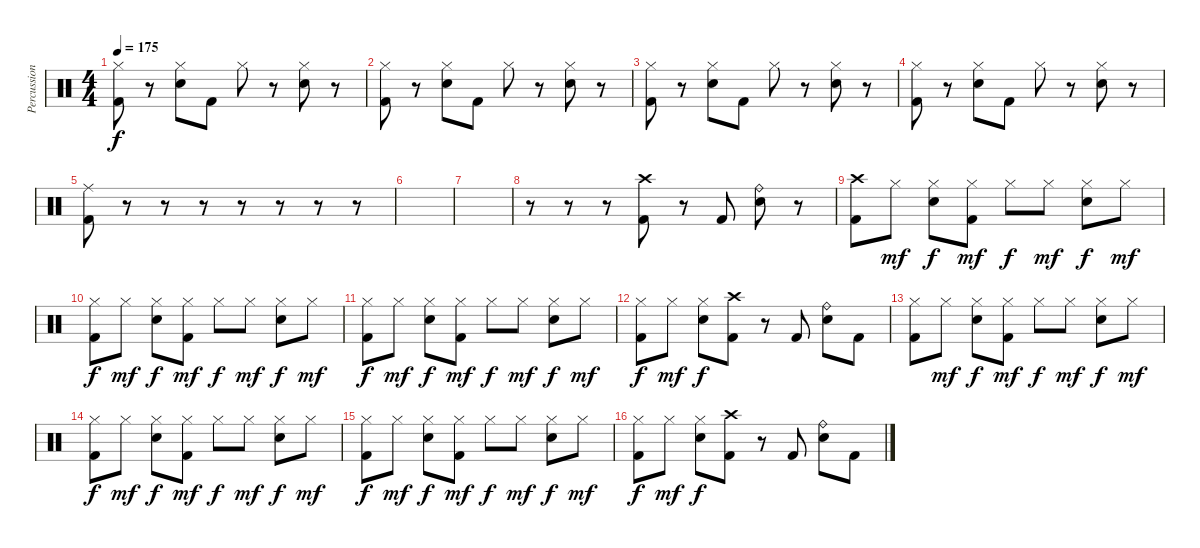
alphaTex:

\track ("Percussion" "Percussion") {instrument percussion}
\staff {score}
\articulation defaults
\ts (4 4)
\tempo 175
\clef neutral
\ks c
("Hi-Hat (closed)" "Kick (hit) 2").8{dy f} r.8 ("Hi-Hat (closed)" "Electric Snare (hit)").8 "Kick (hit) 2".8 "Hi-Hat (closed)".8 r.8 ("Hi-Hat (closed)" "Electric Snare (hit)").8 r.8 |
("Hi-Hat (closed)" "Kick (hit) 2").8 r.8 ("Hi-Hat (closed)" "Electric Snare (hit)").8 "Kick (hit) 2".8 "Hi-Hat (closed)".8 r.8 ("Hi-Hat (closed)" "Electric Snare (hit)").8 r.8 |
("Hi-Hat (closed)" "Kick (hit) 2").8 r.8 ("Hi-Hat (closed)" "Electric Snare (hit)").8 "Kick (hit) 2".8 "Hi-Hat (closed)".8 r.8 ("Hi-Hat (closed)" "Electric Snare (hit)").8 r.8 |
("Hi-Hat (closed)" "Kick (hit) 2").8 r.8 ("Hi-Hat (closed)" "Electric Snare (hit)").8 "Kick (hit) 2".8 "Hi-Hat (closed)".8 r.8 ("Hi-Hat (closed)" "Electric Snare (hit)").8 r.8 |
("Ride (middle)" "Kick (hit) 2").8 r.8 r.8 r.8 r.8 r.8 r.8 r.8 |
|
|
r.8 r.8 r.8 ("Crash high (hit)" "Kick (hit) 2").8 r.8 "Kick (hit) 2".8 ("Ride (bell)" "Electric Snare (hit)").8 r.8 |
("Crash high (hit)" "Kick (hit) 2").8 "Hi-Hat (closed)".8{dy mf} ("Hi-Hat (closed)" "Electric Snare (hit)").8{dy f} ("Hi-Hat (closed)" "Kick (hit) 2").8{dy mf} "Hi-Hat (closed)".8{dy f} "Hi-Hat (closed)".8{dy mf} ("Hi-Hat (closed)" "Electric Snare (hit)").8{dy f} "Hi-Hat (closed)".8{dy mf} |
("Hi-Hat (closed)" "Kick (hit) 2").8{dy f} "Hi-Hat (closed)".8{dy mf} ("Hi-Hat (closed)" "Electric Snare (hit)").8{dy f} ("Hi-Hat (closed)" "Kick (hit) 2").8{dy mf} "Hi-Hat (closed)".8{dy f} "Hi-Hat (closed)".8{dy mf} ("Hi-Hat (closed)" "Electric Snare (hit)").8{dy f} "Hi-Hat (closed)".8{dy mf} |
("Hi-Hat (closed)" "Kick (hit) 2").8{dy f} "Hi-Hat (closed)".8{dy mf} ("Hi-Hat (closed)" "Electric Snare (hit)").8{dy f} ("Hi-Hat (closed)" "Kick (hit) 2").8{dy mf} "Hi-Hat (closed)".8{dy f} "Hi-Hat (closed)".8{dy mf} ("Hi-Hat (closed)" "Electric Snare (hit)").8{dy f} "Hi-Hat (closed)".8{dy mf} |
("Hi-Hat (closed)" "Kick (hit) 2").8{dy f} "Hi-Hat (closed)".8{dy mf} ("Hi-Hat (closed)" "Electric Snare (hit)").8{dy f} ("Crash high (hit)" "Kick (hit) 2").8 r.8 "Kick (hit) 2".8 ("Ride (bell)" "Electric Snare (hit)").8 "Kick (hit) 2".8 |
("Hi-Hat (closed)" "Kick (hit) 2").8 "Hi-Hat (closed)".8{dy mf} ("Hi-Hat (closed)" "Electric Snare (hit)").8{dy f} ("Hi-Hat (closed)" "Kick (hit) 2").8{dy mf} "Hi-Hat (closed)".8{dy f} "Hi-Hat (closed)".8{dy mf} ("Hi-Hat (closed)" "Electric Snare (hit)").8{dy f} "Hi-Hat (closed)".8{dy mf} |
("Hi-Hat (closed)" "Kick (hit) 2").8{dy f} "Hi-Hat (closed)".8{dy mf} ("Hi-Hat (closed)" "Electric Snare (hit)").8{dy f} ("Hi-Hat (closed)" "Kick (hit) 2").8{dy mf} "Hi-Hat (closed)".8{dy f} "Hi-Hat (closed)".8{dy mf} ("Hi-Hat (closed)" "Electric Snare (hit)").8{dy f} "Hi-Hat (closed)".8{dy mf} |
("Hi-Hat (closed)" "Kick (hit) 2").8{dy f} "Hi-Hat (closed)".8{dy mf} ("Hi-Hat (closed)" "Electric Snare (hit)").8{dy f} ("Hi-Hat (closed)" "Kick (hit) 2").8{dy mf} "Hi-Hat (closed)".8{dy f} "Hi-Hat (closed)".8{dy mf} ("Hi-Hat (closed)" "Electric Snare (hit)").8{dy f} "Hi-Hat (closed)".8{dy mf} |
("Hi-Hat (closed)" "Kick (hit) 2").8{dy f} "Hi-Hat (closed)".8{dy mf} ("Hi-Hat (closed)" "Electric Snare (hit)").8{dy f} ("Crash high (hit)" "Kick (hit) 2").8 r.8 "Kick (hit) 2".8 ("Ride (bell)" "Electric Snare (hit)").8 "Kick (hit) 2".8
